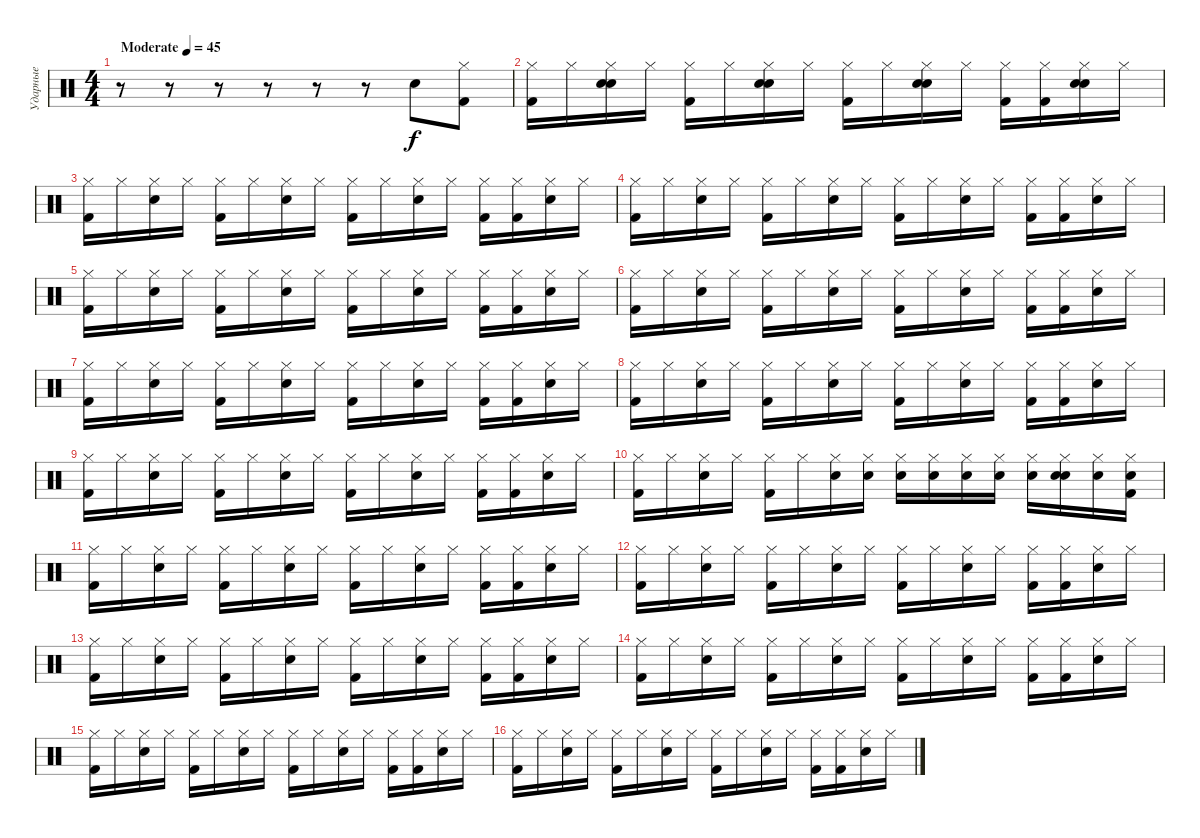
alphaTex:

\track ("Ударные" "Ударные") {instrument percussion}
\staff {score}
\articulation defaults
\ts (4 4)
\tempo (45 "Moderate")
\clef neutral
\ks c
r.8{dy f} r.8 r.8 r.8 r.8 r.8 "Snare (hit) 2".8 ("Hi-Hat (closed)" "Kick (hit) 2").8 |
("Hi-Hat (closed)" "Kick (hit) 2").16 "Hi-Hat (closed)".16 ("Hi-Hat (closed)" "Snare (hit) 2" "Hand Clap (hit)").16 "Hi-Hat (closed)".16 ("Hi-Hat (closed)" "Kick (hit) 2").16 "Hi-Hat (closed)".16 ("Hi-Hat (closed)" "Snare (hit) 2" "Hand Clap (hit)").16 "Hi-Hat (closed)".16 ("Hi-Hat (closed)" "Kick (hit) 2").16 "Hi-Hat (closed)".16 ("Hi-Hat (closed)" "Snare (hit) 2" "Hand Clap (hit)").16 "Hi-Hat (closed)".16 ("Hi-Hat (closed)" "Kick (hit) 2").16 ("Hi-Hat (closed)" "Kick (hit) 2").16 ("Hi-Hat (closed)" "Snare (hit) 2" "Hand Clap (hit)").16 "Hi-Hat (closed)".16 |
("Hi-Hat (closed)" "Kick (hit) 2").16 "Hi-Hat (closed)".16 ("Hi-Hat (closed)" "Snare (hit) 2").16 "Hi-Hat (closed)".16 ("Hi-Hat (closed)" "Kick (hit) 2").16 "Hi-Hat (closed)".16 ("Hi-Hat (closed)" "Snare (hit) 2").16 "Hi-Hat (closed)".16 ("Hi-Hat (closed)" "Kick (hit) 2").16 "Hi-Hat (closed)".16 ("Hi-Hat (closed)" "Snare (hit) 2").16 "Hi-Hat (closed)".16 ("Hi-Hat (closed)" "Kick (hit) 2").16 ("Hi-Hat (closed)" "Kick (hit) 2").16 ("Hi-Hat (closed)" "Snare (hit) 2").16 "Hi-Hat (closed)".16 |
("Hi-Hat (closed)" "Kick (hit) 2").16 "Hi-Hat (closed)".16 ("Hi-Hat (closed)" "Snare (hit) 2").16 "Hi-Hat (closed)".16 ("Hi-Hat (closed)" "Kick (hit) 2").16 "Hi-Hat (closed)".16 ("Hi-Hat (closed)" "Snare (hit) 2").16 "Hi-Hat (closed)".16 ("Hi-Hat (closed)" "Kick (hit) 2").16 "Hi-Hat (closed)".16 ("Hi-Hat (closed)" "Snare (hit) 2").16 "Hi-Hat (closed)".16 ("Hi-Hat (closed)" "Kick (hit) 2").16 ("Hi-Hat (closed)" "Kick (hit) 2").16 ("Hi-Hat (closed)" "Snare (hit) 2").16 "Hi-Hat (closed)".16 |
("Hi-Hat (closed)" "Kick (hit) 2").16 "Hi-Hat (closed)".16 ("Hi-Hat (closed)" "Snare (hit) 2").16 "Hi-Hat (closed)".16 ("Hi-Hat (closed)" "Kick (hit) 2").16 "Hi-Hat (closed)".16 ("Hi-Hat (closed)" "Snare (hit) 2").16 "Hi-Hat (closed)".16 ("Hi-Hat (closed)" "Kick (hit) 2").16 "Hi-Hat (closed)".16 ("Hi-Hat (closed)" "Snare (hit) 2").16 "Hi-Hat (closed)".16 ("Hi-Hat (closed)" "Kick (hit) 2").16 ("Hi-Hat (closed)" "Kick (hit) 2").16 ("Hi-Hat (closed)" "Snare (hit) 2").16 "Hi-Hat (closed)".16 |
("Hi-Hat (closed)" "Kick (hit) 2").16 "Hi-Hat (closed)".16 ("Hi-Hat (closed)" "Snare (hit) 2").16 "Hi-Hat (closed)".16 ("Hi-Hat (closed)" "Kick (hit) 2").16 "Hi-Hat (closed)".16 ("Hi-Hat (closed)" "Snare (hit) 2").16 "Hi-Hat (closed)".16 ("Hi-Hat (closed)" "Kick (hit) 2").16 "Hi-Hat (closed)".16 ("Hi-Hat (closed)" "Snare (hit) 2").16 "Hi-Hat (closed)".16 ("Hi-Hat (closed)" "Kick (hit) 2").16 ("Hi-Hat (closed)" "Kick (hit) 2").16 ("Hi-Hat (closed)" "Snare (hit) 2").16 "Hi-Hat (closed)".16 |
("Hi-Hat (closed)" "Kick (hit) 2").16 "Hi-Hat (closed)".16 ("Hi-Hat (closed)" "Snare (hit) 2").16 "Hi-Hat (closed)".16 ("Hi-Hat (closed)" "Kick (hit) 2").16 "Hi-Hat (closed)".16 ("Hi-Hat (closed)" "Snare (hit) 2").16 "Hi-Hat (closed)".16 ("Hi-Hat (closed)" "Kick (hit) 2").16 "Hi-Hat (closed)".16 ("Hi-Hat (closed)" "Snare (hit) 2").16 "Hi-Hat (closed)".16 ("Hi-Hat (closed)" "Kick (hit) 2").16 ("Hi-Hat (closed)" "Kick (hit) 2").16 ("Hi-Hat (closed)" "Snare (hit) 2").16 "Hi-Hat (closed)".16 |
("Hi-Hat (closed)" "Kick (hit) 2").16 "Hi-Hat (closed)".16 ("Hi-Hat (closed)" "Snare (hit) 2").16 "Hi-Hat (closed)".16 ("Hi-Hat (closed)" "Kick (hit) 2").16 "Hi-Hat (closed)".16 ("Hi-Hat (closed)" "Snare (hit) 2").16 "Hi-Hat (closed)".16 ("Hi-Hat (closed)" "Kick (hit) 2").16 "Hi-Hat (closed)".16 ("Hi-Hat (closed)" "Snare (hit) 2").16 "Hi-Hat (closed)".16 ("Hi-Hat (closed)" "Kick (hit) 2").16 ("Hi-Hat (closed)" "Kick (hit) 2").16 ("Hi-Hat (closed)" "Snare (hit) 2").16 "Hi-Hat (closed)".16 |
("Hi-Hat (closed)" "Kick (hit) 2").16 "Hi-Hat (closed)".16 ("Hi-Hat (closed)" "Snare (hit) 2").16 "Hi-Hat (closed)".16 ("Hi-Hat (closed)" "Kick (hit) 2").16 "Hi-Hat (closed)".16 ("Hi-Hat (closed)" "Snare (hit) 2").16 "Hi-Hat (closed)".16 ("Hi-Hat (closed)" "Kick (hit) 2").16 "Hi-Hat (closed)".16 ("Hi-Hat (closed)" "Snare (hit) 2").16 "Hi-Hat (closed)".16 ("Hi-Hat (closed)" "Kick (hit) 2").16 ("Hi-Hat (closed)" "Kick (hit) 2").16 ("Hi-Hat (closed)" "Snare (hit) 2").16 "Hi-Hat (closed)".16 |
("Hi-Hat (closed)" "Kick (hit) 2").16 "Hi-Hat (closed)".16 ("Hi-Hat (closed)" "Snare (hit) 2").16 "Hi-Hat (closed)".16 ("Hi-Hat (closed)" "Kick (hit) 2").16 "Hi-Hat (closed)".16 ("Hi-Hat (closed)" "Snare (hit) 2").16 ("Hi-Hat (closed)" "Hand Clap (hit)").16 ("Hi-Hat (closed)" "Hand Clap (hit)").16 ("Hi-Hat (closed)" "Hand Clap (hit)").16 ("Hi-Hat (closed)" "Hand Clap (hit)").16 ("Hi-Hat (closed)" "Hand Clap (hit)").16 ("Hi-Hat (closed)" "Hand Clap (hit)").16 ("Hi-Hat (closed)" "Snare (hit) 2" "Hand Clap (hit)").16 ("Hi-Hat (closed)" "Hand Clap (hit)").16 ("Hi-Hat (closed)" "Kick (hit) 2" "Hand Clap (hit)").16 |
("Hi-Hat (closed)" "Kick (hit) 2").16 "Hi-Hat (closed)".16 ("Hi-Hat (closed)" "Snare (hit) 2").16 "Hi-Hat (closed)".16 ("Hi-Hat (closed)" "Kick (hit) 2").16 "Hi-Hat (closed)".16 ("Hi-Hat (closed)" "Snare (hit) 2").16 "Hi-Hat (closed)".16 ("Hi-Hat (closed)" "Kick (hit) 2").16 "Hi-Hat (closed)".16 ("Hi-Hat (closed)" "Snare (hit) 2").16 "Hi-Hat (closed)".16 ("Hi-Hat (closed)" "Kick (hit) 2").16 ("Hi-Hat (closed)" "Kick (hit) 2").16 ("Hi-Hat (closed)" "Snare (hit) 2").16 "Hi-Hat (closed)".16 |
("Hi-Hat (closed)" "Kick (hit) 2").16 "Hi-Hat (closed)".16 ("Hi-Hat (closed)" "Snare (hit) 2").16 "Hi-Hat (closed)".16 ("Hi-Hat (closed)" "Kick (hit) 2").16 "Hi-Hat (closed)".16 ("Hi-Hat (closed)" "Snare (hit) 2").16 "Hi-Hat (closed)".16 ("Hi-Hat (closed)" "Kick (hit) 2").16 "Hi-Hat (closed)".16 ("Hi-Hat (closed)" "Snare (hit) 2").16 "Hi-Hat (closed)".16 ("Hi-Hat (closed)" "Kick (hit) 2").16 ("Hi-Hat (closed)" "Kick (hit) 2").16 ("Hi-Hat (closed)" "Snare (hit) 2").16 "Hi-Hat (closed)".16 |
("Hi-Hat (closed)" "Kick (hit) 2").16 "Hi-Hat (closed)".16 ("Hi-Hat (closed)" "Snare (hit) 2").16 "Hi-Hat (closed)".16 ("Hi-Hat (closed)" "Kick (hit) 2").16 "Hi-Hat (closed)".16 ("Hi-Hat (closed)" "Snare (hit) 2").16 "Hi-Hat (closed)".16 ("Hi-Hat (closed)" "Kick (hit) 2").16 "Hi-Hat (closed)".16 ("Hi-Hat (closed)" "Snare (hit) 2").16 "Hi-Hat (closed)".16 ("Hi-Hat (closed)" "Kick (hit) 2").16 ("Hi-Hat (closed)" "Kick (hit) 2").16 ("Hi-Hat (closed)" "Snare (hit) 2").16 "Hi-Hat (closed)".16 |
("Hi-Hat (closed)" "Kick (hit) 2").16 "Hi-Hat (closed)".16 ("Hi-Hat (closed)" "Snare (hit) 2").16 "Hi-Hat (closed)".16 ("Hi-Hat (closed)" "Kick (hit) 2").16 "Hi-Hat (closed)".16 ("Hi-Hat (closed)" "Snare (hit) 2").16 "Hi-Hat (closed)".16 ("Hi-Hat (closed)" "Kick (hit) 2").16 "Hi-Hat (closed)".16 ("Hi-Hat (closed)" "Snare (hit) 2").16 "Hi-Hat (closed)".16 ("Hi-Hat (closed)" "Kick (hit) 2").16 ("Hi-Hat (closed)" "Kick (hit) 2").16 ("Hi-Hat (closed)" "Snare (hit) 2").16 "Hi-Hat (closed)".16 |
("Hi-Hat (closed)" "Kick (hit) 2").16 "Hi-Hat (closed)".16 ("Hi-Hat (closed)" "Snare (hit) 2").16 "Hi-Hat (closed)".16 ("Hi-Hat (closed)" "Kick (hit) 2").16 "Hi-Hat (closed)".16 ("Hi-Hat (closed)" "Snare (hit) 2").16 "Hi-Hat (closed)".16 ("Hi-Hat (closed)" "Kick (hit) 2").16 "Hi-Hat (closed)".16 ("Hi-Hat (closed)" "Snare (hit) 2").16 "Hi-Hat (closed)".16 ("Hi-Hat (closed)" "Kick (hit) 2").16 ("Hi-Hat (closed)" "Kick (hit) 2").16 ("Hi-Hat (closed)" "Snare (hit) 2").16 "Hi-Hat (closed)".16 |
("Hi-Hat (closed)" "Kick (hit) 2").16 "Hi-Hat (closed)".16 ("Hi-Hat (closed)" "Snare (hit) 2").16 "Hi-Hat (closed)".16 ("Hi-Hat (closed)" "Kick (hit) 2").16 "Hi-Hat (closed)".16 ("Hi-Hat (closed)" "Snare (hit) 2").16 "Hi-Hat (closed)".16 ("Hi-Hat (closed)" "Kick (hit) 2").16 "Hi-Hat (closed)".16 ("Hi-Hat (closed)" "Snare (hit) 2").16 "Hi-Hat (closed)".16 ("Hi-Hat (closed)" "Kick (hit) 2").16 ("Hi-Hat (closed)" "Kick (hit) 2").16 ("Hi-Hat (closed)" "Snare (hit) 2").16 "Hi-Hat (closed)".16
